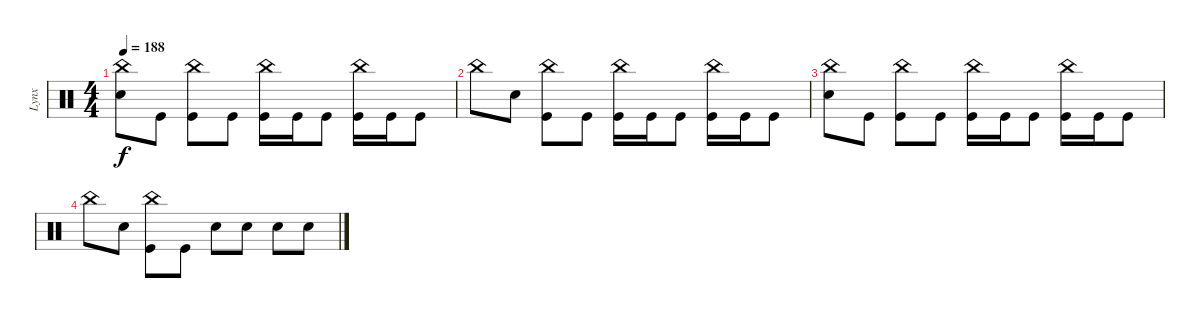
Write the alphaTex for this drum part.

\track ("Lynx" "Lynx") {instrument percussion}
\staff {score}
\articulation defaults
\ts (4 4)
\tempo 188
\clef neutral
\ks c
("Electric Snare (hit)" "China (hit)").8{dy f} "Kick (hit)".8 ("Kick (hit)" "China (hit)").8 "Kick (hit)".8 ("Kick (hit)" "China (hit)").16 "Kick (hit)".16 "Kick (hit)".8 ("Kick (hit)" "China (hit)").16 "Kick (hit)".16 "Kick (hit)".8 |
"China (hit)".8 "Electric Snare (hit)".8 ("Kick (hit)" "China (hit)").8 "Kick (hit)".8 ("Kick (hit)" "China (hit)").16 "Kick (hit)".16 "Kick (hit)".8 ("Kick (hit)" "China (hit)").16 "Kick (hit)".16 "Kick (hit)".8 |
("Electric Snare (hit)" "China (hit)").8 "Kick (hit)".8 ("Kick (hit)" "China (hit)").8 "Kick (hit)".8 ("Kick (hit)" "China (hit)").16 "Kick (hit)".16 "Kick (hit)".8 ("Kick (hit)" "China (hit)").16 "Kick (hit)".16 "Kick (hit)".8 |
"China (hit)".8 "Electric Snare (hit)".8 ("Kick (hit)" "China (hit)").8 "Kick (hit)".8 "Electric Snare (hit)".8 "Electric Snare (hit)".8 "Electric Snare (hit)".8 "Electric Snare (hit)".8
